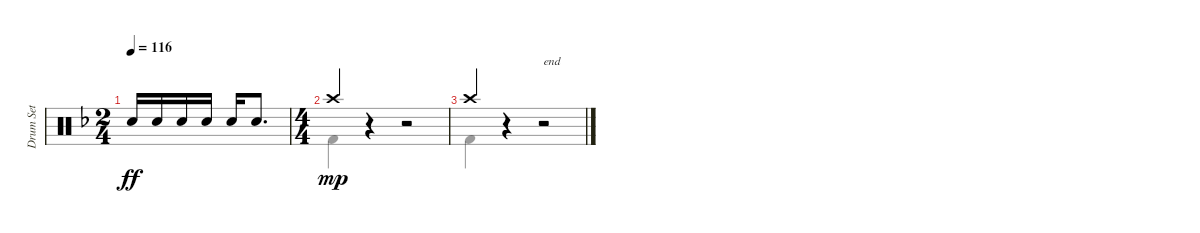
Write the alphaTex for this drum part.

\track ("Drum Set" "Drum Set") {instrument percussion}
\staff {score}
\articulation defaults
\voice
\ts (2 4)
\tempo 116
\clef neutral
\ks dminor "Electric Snare (hit)".16{dy ff beam Up} "Electric Snare (hit)".16{beam Up} "Electric Snare (hit)".16{beam Up} "Electric Snare (hit)".16{beam Up} "Electric Snare (hit)".16{beam Up} "Electric Snare (hit)".8{d beam Up}
|
\ts (4 4)
\ks f "Crash high (hit)".4{dy mp}
r.4 r.2 |
"Crash high (hit)".4{volume 0} r.4 r.2{txt "end"}
\voice
\clef neutral
\ottava regular
\simile none
\ks dminor
|
\ks f "Kick (hit) 2".4
r.4 r.2 |
"Kick (hit) 2".4 r.4 r.2
